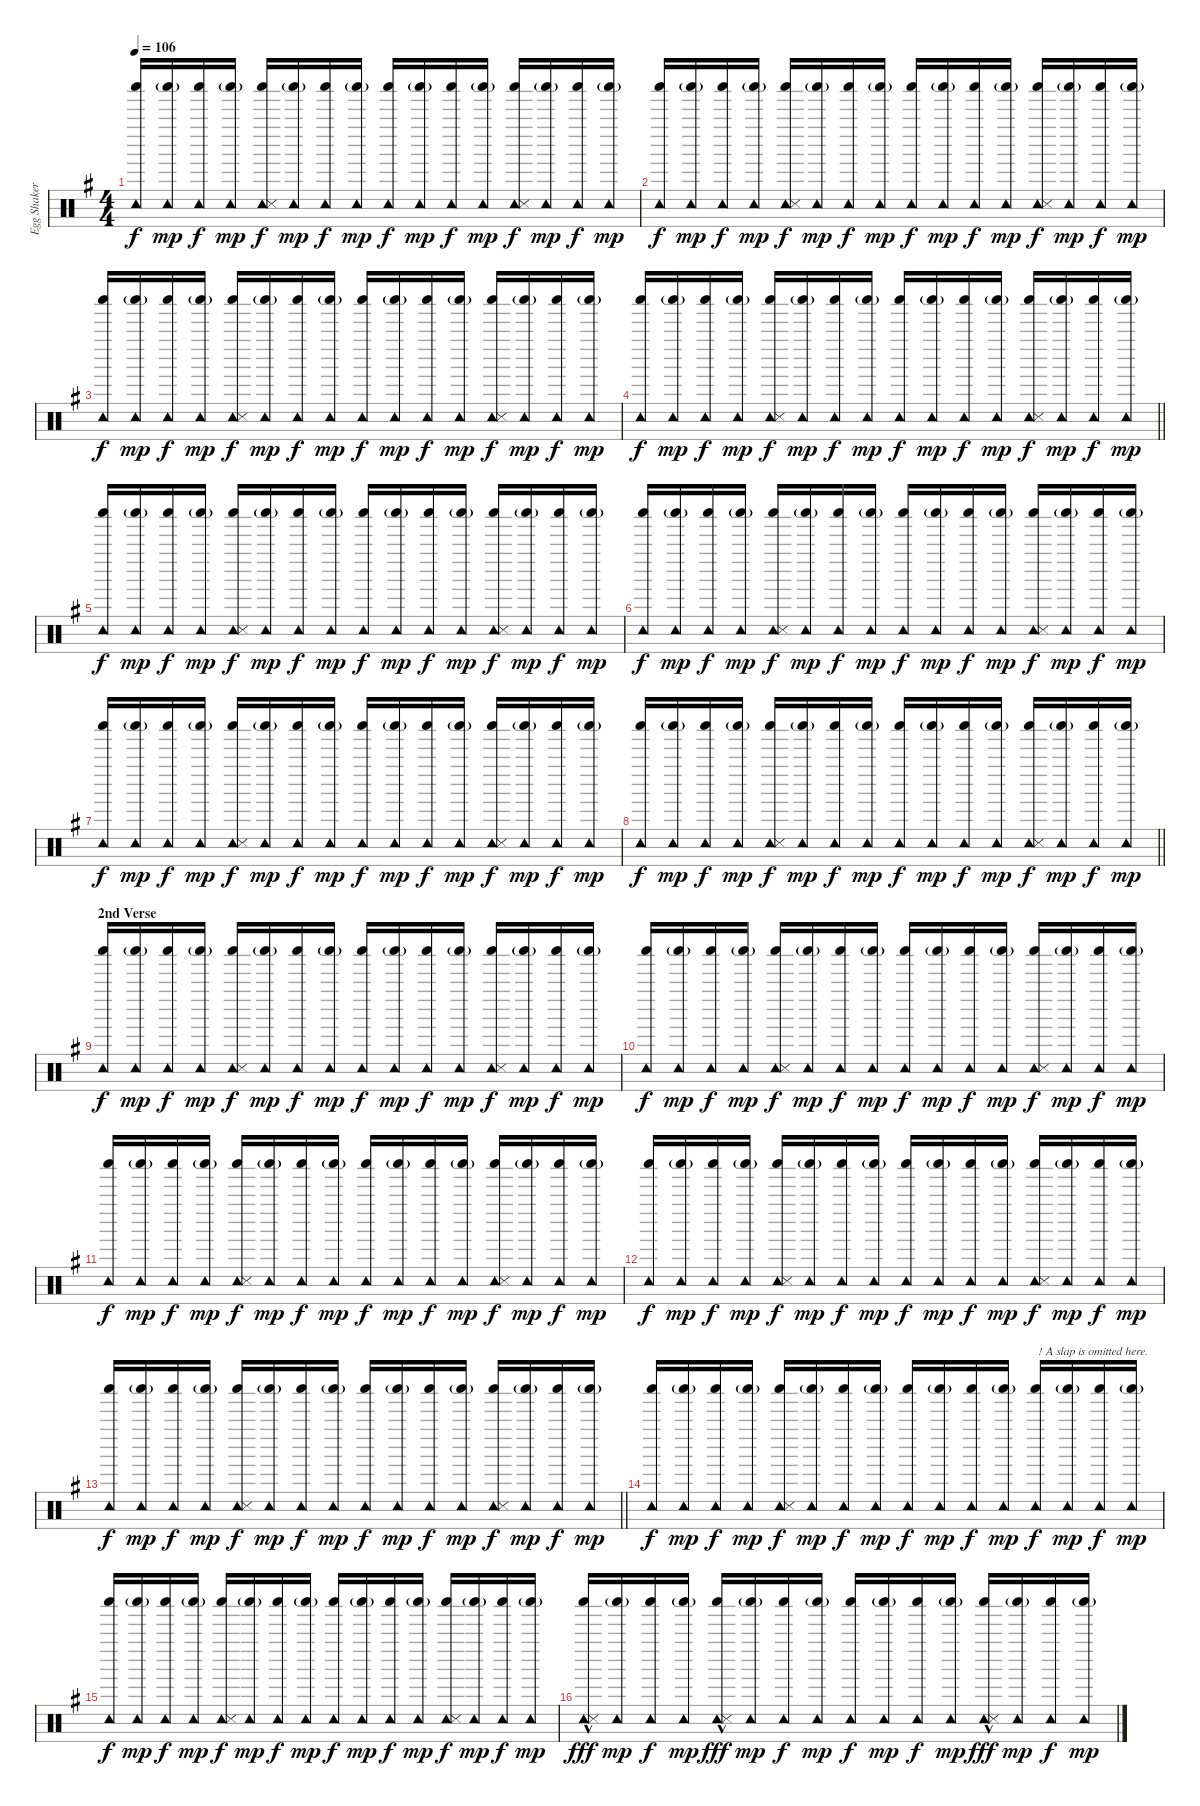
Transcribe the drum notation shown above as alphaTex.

\track ("Egg Shaker and Tambourine" "Egg Shaker") {instrument percussion}
\staff {score}
\articulation defaults
\ts (4 4)
\tempo 106
\clef neutral
\ks eminor
("Tambourine (hit)" "Shaker (hit)").16{dy f beam Up} ("Tambourine (hit)" "Shaker (hit)"{g}).16{dy mp beam Up} ("Tambourine (hit)" "Shaker (hit)").16{dy f beam Up} ("Tambourine (hit)" "Shaker (hit)"{g}).16{dy mp beam Up} ("Tambourine (hit)" "Shaker (hit)" "Snare (side stick) 3").16{dy f beam Up} ("Tambourine (hit)" "Shaker (hit)"{g}).16{dy mp beam Up} ("Tambourine (hit)" "Shaker (hit)").16{dy f beam Up} ("Tambourine (hit)" "Shaker (hit)"{g}).16{dy mp beam Up} ("Tambourine (hit)" "Shaker (hit)").16{dy f beam Up} ("Tambourine (hit)" "Shaker (hit)"{g}).16{dy mp beam Up} ("Tambourine (hit)" "Shaker (hit)").16{dy f beam Up} ("Tambourine (hit)" "Shaker (hit)"{g}).16{dy mp beam Up} ("Tambourine (hit)" "Shaker (hit)" "Snare (side stick) 3").16{dy f beam Up} ("Tambourine (hit)" "Shaker (hit)"{g}).16{dy mp beam Up} ("Tambourine (hit)" "Shaker (hit)").16{dy f beam Up} ("Tambourine (hit)" "Shaker (hit)"{g}).16{dy mp beam Up} |
("Tambourine (hit)" "Shaker (hit)").16{dy f beam Up} ("Tambourine (hit)" "Shaker (hit)"{g}).16{dy mp beam Up} ("Tambourine (hit)" "Shaker (hit)").16{dy f beam Up} ("Tambourine (hit)" "Shaker (hit)"{g}).16{dy mp beam Up} ("Tambourine (hit)" "Shaker (hit)" "Snare (side stick) 3").16{dy f beam Up} ("Tambourine (hit)" "Shaker (hit)"{g}).16{dy mp beam Up} ("Tambourine (hit)" "Shaker (hit)").16{dy f beam Up} ("Tambourine (hit)" "Shaker (hit)"{g}).16{dy mp beam Up} ("Tambourine (hit)" "Shaker (hit)").16{dy f beam Up} ("Tambourine (hit)" "Shaker (hit)"{g}).16{dy mp beam Up} ("Tambourine (hit)" "Shaker (hit)").16{dy f beam Up} ("Tambourine (hit)" "Shaker (hit)"{g}).16{dy mp beam Up} ("Tambourine (hit)" "Shaker (hit)" "Snare (side stick) 3").16{dy f beam Up} ("Tambourine (hit)" "Shaker (hit)"{g}).16{dy mp beam Up} ("Tambourine (hit)" "Shaker (hit)").16{dy f beam Up} ("Tambourine (hit)" "Shaker (hit)"{g}).16{dy mp beam Up} |
("Tambourine (hit)" "Shaker (hit)").16{dy f beam Up} ("Tambourine (hit)" "Shaker (hit)"{g}).16{dy mp beam Up} ("Tambourine (hit)" "Shaker (hit)").16{dy f beam Up} ("Tambourine (hit)" "Shaker (hit)"{g}).16{dy mp beam Up} ("Tambourine (hit)" "Shaker (hit)" "Snare (side stick) 3").16{dy f beam Up} ("Tambourine (hit)" "Shaker (hit)"{g}).16{dy mp beam Up} ("Tambourine (hit)" "Shaker (hit)").16{dy f beam Up} ("Tambourine (hit)" "Shaker (hit)"{g}).16{dy mp beam Up} ("Tambourine (hit)" "Shaker (hit)").16{dy f beam Up} ("Tambourine (hit)" "Shaker (hit)"{g}).16{dy mp beam Up} ("Tambourine (hit)" "Shaker (hit)").16{dy f beam Up} ("Tambourine (hit)" "Shaker (hit)"{g}).16{dy mp beam Up} ("Tambourine (hit)" "Shaker (hit)" "Snare (side stick) 3").16{dy f beam Up} ("Tambourine (hit)" "Shaker (hit)"{g}).16{dy mp beam Up} ("Tambourine (hit)" "Shaker (hit)").16{dy f beam Up} ("Tambourine (hit)" "Shaker (hit)"{g}).16{dy mp beam Up} |
\barLineRight lightlight
("Tambourine (hit)" "Shaker (hit)").16{dy f beam Up} ("Tambourine (hit)" "Shaker (hit)"{g}).16{dy mp beam Up} ("Tambourine (hit)" "Shaker (hit)").16{dy f beam Up} ("Tambourine (hit)" "Shaker (hit)"{g}).16{dy mp beam Up} ("Tambourine (hit)" "Shaker (hit)" "Snare (side stick) 3").16{dy f beam Up} ("Tambourine (hit)" "Shaker (hit)"{g}).16{dy mp beam Up} ("Tambourine (hit)" "Shaker (hit)").16{dy f beam Up} ("Tambourine (hit)" "Shaker (hit)"{g}).16{dy mp beam Up} ("Tambourine (hit)" "Shaker (hit)").16{dy f beam Up} ("Tambourine (hit)" "Shaker (hit)"{g}).16{dy mp beam Up} ("Tambourine (hit)" "Shaker (hit)").16{dy f beam Up} ("Tambourine (hit)" "Shaker (hit)"{g}).16{dy mp beam Up} ("Tambourine (hit)" "Shaker (hit)" "Snare (side stick) 3").16{dy f beam Up} ("Tambourine (hit)" "Shaker (hit)"{g}).16{dy mp beam Up} ("Tambourine (hit)" "Shaker (hit)").16{dy f beam Up} ("Tambourine (hit)" "Shaker (hit)"{g}).16{dy mp beam Up} |
("Tambourine (hit)" "Shaker (hit)").16{dy f beam Up} ("Tambourine (hit)" "Shaker (hit)"{g}).16{dy mp beam Up} ("Tambourine (hit)" "Shaker (hit)").16{dy f beam Up} ("Tambourine (hit)" "Shaker (hit)"{g}).16{dy mp beam Up} ("Tambourine (hit)" "Shaker (hit)" "Snare (side stick) 3").16{dy f beam Up} ("Tambourine (hit)" "Shaker (hit)"{g}).16{dy mp beam Up} ("Tambourine (hit)" "Shaker (hit)").16{dy f beam Up} ("Tambourine (hit)" "Shaker (hit)"{g}).16{dy mp beam Up} ("Tambourine (hit)" "Shaker (hit)").16{dy f beam Up} ("Tambourine (hit)" "Shaker (hit)"{g}).16{dy mp beam Up} ("Tambourine (hit)" "Shaker (hit)").16{dy f beam Up} ("Tambourine (hit)" "Shaker (hit)"{g}).16{dy mp beam Up} ("Tambourine (hit)" "Shaker (hit)" "Snare (side stick) 3").16{dy f beam Up} ("Tambourine (hit)" "Shaker (hit)"{g}).16{dy mp beam Up} ("Tambourine (hit)" "Shaker (hit)").16{dy f beam Up} ("Tambourine (hit)" "Shaker (hit)"{g}).16{dy mp beam Up} |
("Tambourine (hit)" "Shaker (hit)").16{dy f beam Up} ("Tambourine (hit)" "Shaker (hit)"{g}).16{dy mp beam Up} ("Tambourine (hit)" "Shaker (hit)").16{dy f beam Up} ("Tambourine (hit)" "Shaker (hit)"{g}).16{dy mp beam Up} ("Tambourine (hit)" "Shaker (hit)" "Snare (side stick) 3").16{dy f beam Up} ("Tambourine (hit)" "Shaker (hit)"{g}).16{dy mp beam Up} ("Tambourine (hit)" "Shaker (hit)").16{dy f beam Up} ("Tambourine (hit)" "Shaker (hit)"{g}).16{dy mp beam Up} ("Tambourine (hit)" "Shaker (hit)").16{dy f beam Up} ("Tambourine (hit)" "Shaker (hit)"{g}).16{dy mp beam Up} ("Tambourine (hit)" "Shaker (hit)").16{dy f beam Up} ("Tambourine (hit)" "Shaker (hit)"{g}).16{dy mp beam Up} ("Tambourine (hit)" "Shaker (hit)" "Snare (side stick) 3").16{dy f beam Up} ("Tambourine (hit)" "Shaker (hit)"{g}).16{dy mp beam Up} ("Tambourine (hit)" "Shaker (hit)").16{dy f beam Up} ("Tambourine (hit)" "Shaker (hit)"{g}).16{dy mp beam Up} |
("Tambourine (hit)" "Shaker (hit)").16{dy f beam Up} ("Tambourine (hit)" "Shaker (hit)"{g}).16{dy mp beam Up} ("Tambourine (hit)" "Shaker (hit)").16{dy f beam Up} ("Tambourine (hit)" "Shaker (hit)"{g}).16{dy mp beam Up} ("Tambourine (hit)" "Shaker (hit)" "Snare (side stick) 3").16{dy f beam Up} ("Tambourine (hit)" "Shaker (hit)"{g}).16{dy mp beam Up} ("Tambourine (hit)" "Shaker (hit)").16{dy f beam Up} ("Tambourine (hit)" "Shaker (hit)"{g}).16{dy mp beam Up} ("Tambourine (hit)" "Shaker (hit)").16{dy f beam Up} ("Tambourine (hit)" "Shaker (hit)"{g}).16{dy mp beam Up} ("Tambourine (hit)" "Shaker (hit)").16{dy f beam Up} ("Tambourine (hit)" "Shaker (hit)"{g}).16{dy mp beam Up} ("Tambourine (hit)" "Shaker (hit)" "Snare (side stick) 3").16{dy f beam Up} ("Tambourine (hit)" "Shaker (hit)"{g}).16{dy mp beam Up} ("Tambourine (hit)" "Shaker (hit)").16{dy f beam Up} ("Tambourine (hit)" "Shaker (hit)"{g}).16{dy mp beam Up} |
\barLineRight lightlight
("Tambourine (hit)" "Shaker (hit)").16{dy f beam Up} ("Tambourine (hit)" "Shaker (hit)"{g}).16{dy mp beam Up} ("Tambourine (hit)" "Shaker (hit)").16{dy f beam Up} ("Tambourine (hit)" "Shaker (hit)"{g}).16{dy mp beam Up} ("Tambourine (hit)" "Shaker (hit)" "Snare (side stick) 3").16{dy f beam Up} ("Tambourine (hit)" "Shaker (hit)"{g}).16{dy mp beam Up} ("Tambourine (hit)" "Shaker (hit)").16{dy f beam Up} ("Tambourine (hit)" "Shaker (hit)"{g}).16{dy mp beam Up} ("Tambourine (hit)" "Shaker (hit)").16{dy f beam Up} ("Tambourine (hit)" "Shaker (hit)"{g}).16{dy mp beam Up} ("Tambourine (hit)" "Shaker (hit)").16{dy f beam Up} ("Tambourine (hit)" "Shaker (hit)"{g}).16{dy mp beam Up} ("Tambourine (hit)" "Shaker (hit)" "Snare (side stick) 3").16{dy f beam Up} ("Tambourine (hit)" "Shaker (hit)"{g}).16{dy mp beam Up} ("Tambourine (hit)" "Shaker (hit)").16{dy f beam Up} ("Tambourine (hit)" "Shaker (hit)"{g}).16{dy mp beam Up} |
\section ("" "2nd Verse")
("Tambourine (hit)" "Shaker (hit)").16{dy f beam Up} ("Tambourine (hit)" "Shaker (hit)"{g}).16{dy mp beam Up} ("Tambourine (hit)" "Shaker (hit)").16{dy f beam Up} ("Tambourine (hit)" "Shaker (hit)"{g}).16{dy mp beam Up} ("Tambourine (hit)" "Shaker (hit)" "Snare (side stick) 3").16{dy f beam Up} ("Tambourine (hit)" "Shaker (hit)"{g}).16{dy mp beam Up} ("Tambourine (hit)" "Shaker (hit)").16{dy f beam Up} ("Tambourine (hit)" "Shaker (hit)"{g}).16{dy mp beam Up} ("Tambourine (hit)" "Shaker (hit)").16{dy f beam Up} ("Tambourine (hit)" "Shaker (hit)"{g}).16{dy mp beam Up} ("Tambourine (hit)" "Shaker (hit)").16{dy f beam Up} ("Tambourine (hit)" "Shaker (hit)"{g}).16{dy mp beam Up} ("Tambourine (hit)" "Shaker (hit)" "Snare (side stick) 3").16{dy f beam Up} ("Tambourine (hit)" "Shaker (hit)"{g}).16{dy mp beam Up} ("Tambourine (hit)" "Shaker (hit)").16{dy f beam Up} ("Tambourine (hit)" "Shaker (hit)"{g}).16{dy mp beam Up} |
("Tambourine (hit)" "Shaker (hit)").16{dy f beam Up} ("Tambourine (hit)" "Shaker (hit)"{g}).16{dy mp beam Up} ("Tambourine (hit)" "Shaker (hit)").16{dy f beam Up} ("Tambourine (hit)" "Shaker (hit)"{g}).16{dy mp beam Up} ("Tambourine (hit)" "Shaker (hit)" "Snare (side stick) 3").16{dy f beam Up} ("Tambourine (hit)" "Shaker (hit)"{g}).16{dy mp beam Up} ("Tambourine (hit)" "Shaker (hit)").16{dy f beam Up} ("Tambourine (hit)" "Shaker (hit)"{g}).16{dy mp beam Up} ("Tambourine (hit)" "Shaker (hit)").16{dy f beam Up} ("Tambourine (hit)" "Shaker (hit)"{g}).16{dy mp beam Up} ("Tambourine (hit)" "Shaker (hit)").16{dy f beam Up} ("Tambourine (hit)" "Shaker (hit)"{g}).16{dy mp beam Up} ("Tambourine (hit)" "Shaker (hit)" "Snare (side stick) 3").16{dy f beam Up} ("Tambourine (hit)" "Shaker (hit)"{g}).16{dy mp beam Up} ("Tambourine (hit)" "Shaker (hit)").16{dy f beam Up} ("Tambourine (hit)" "Shaker (hit)"{g}).16{dy mp beam Up} |
("Tambourine (hit)" "Shaker (hit)").16{dy f beam Up} ("Tambourine (hit)" "Shaker (hit)"{g}).16{dy mp beam Up} ("Tambourine (hit)" "Shaker (hit)").16{dy f beam Up} ("Tambourine (hit)" "Shaker (hit)"{g}).16{dy mp beam Up} ("Tambourine (hit)" "Shaker (hit)" "Snare (side stick) 3").16{dy f beam Up} ("Tambourine (hit)" "Shaker (hit)"{g}).16{dy mp beam Up} ("Tambourine (hit)" "Shaker (hit)").16{dy f beam Up} ("Tambourine (hit)" "Shaker (hit)"{g}).16{dy mp beam Up} ("Tambourine (hit)" "Shaker (hit)").16{dy f beam Up} ("Tambourine (hit)" "Shaker (hit)"{g}).16{dy mp beam Up} ("Tambourine (hit)" "Shaker (hit)").16{dy f beam Up} ("Tambourine (hit)" "Shaker (hit)"{g}).16{dy mp beam Up} ("Tambourine (hit)" "Shaker (hit)" "Snare (side stick) 3").16{dy f beam Up} ("Tambourine (hit)" "Shaker (hit)"{g}).16{dy mp beam Up} ("Tambourine (hit)" "Shaker (hit)").16{dy f beam Up} ("Tambourine (hit)" "Shaker (hit)"{g}).16{dy mp beam Up} |
("Tambourine (hit)" "Shaker (hit)").16{dy f beam Up} ("Tambourine (hit)" "Shaker (hit)"{g}).16{dy mp beam Up} ("Tambourine (hit)" "Shaker (hit)").16{dy f beam Up} ("Tambourine (hit)" "Shaker (hit)"{g}).16{dy mp beam Up} ("Tambourine (hit)" "Shaker (hit)" "Snare (side stick) 3").16{dy f beam Up} ("Tambourine (hit)" "Shaker (hit)"{g}).16{dy mp beam Up} ("Tambourine (hit)" "Shaker (hit)").16{dy f beam Up} ("Tambourine (hit)" "Shaker (hit)"{g}).16{dy mp beam Up} ("Tambourine (hit)" "Shaker (hit)").16{dy f beam Up} ("Tambourine (hit)" "Shaker (hit)"{g}).16{dy mp beam Up} ("Tambourine (hit)" "Shaker (hit)").16{dy f beam Up} ("Tambourine (hit)" "Shaker (hit)"{g}).16{dy mp beam Up} ("Tambourine (hit)" "Shaker (hit)" "Snare (side stick) 3").16{dy f beam Up} ("Tambourine (hit)" "Shaker (hit)"{g}).16{dy mp beam Up} ("Tambourine (hit)" "Shaker (hit)").16{dy f beam Up} ("Tambourine (hit)" "Shaker (hit)"{g}).16{dy mp beam Up} |
\barLineRight lightlight
("Tambourine (hit)" "Shaker (hit)").16{dy f beam Up} ("Tambourine (hit)" "Shaker (hit)"{g}).16{dy mp beam Up} ("Tambourine (hit)" "Shaker (hit)").16{dy f beam Up} ("Tambourine (hit)" "Shaker (hit)"{g}).16{dy mp beam Up} ("Tambourine (hit)" "Shaker (hit)" "Snare (side stick) 3").16{dy f beam Up} ("Tambourine (hit)" "Shaker (hit)"{g}).16{dy mp beam Up} ("Tambourine (hit)" "Shaker (hit)").16{dy f beam Up} ("Tambourine (hit)" "Shaker (hit)"{g}).16{dy mp beam Up} ("Tambourine (hit)" "Shaker (hit)").16{dy f beam Up} ("Tambourine (hit)" "Shaker (hit)"{g}).16{dy mp beam Up} ("Tambourine (hit)" "Shaker (hit)").16{dy f beam Up} ("Tambourine (hit)" "Shaker (hit)"{g}).16{dy mp beam Up} ("Tambourine (hit)" "Shaker (hit)" "Snare (side stick) 3").16{dy f beam Up} ("Tambourine (hit)" "Shaker (hit)"{g}).16{dy mp beam Up} ("Tambourine (hit)" "Shaker (hit)").16{dy f beam Up} ("Tambourine (hit)" "Shaker (hit)"{g}).16{dy mp beam Up} |
("Tambourine (hit)" "Shaker (hit)").16{dy f beam Up} ("Tambourine (hit)" "Shaker (hit)"{g}).16{dy mp beam Up} ("Tambourine (hit)" "Shaker (hit)").16{dy f beam Up} ("Tambourine (hit)" "Shaker (hit)"{g}).16{dy mp beam Up} ("Tambourine (hit)" "Shaker (hit)" "Snare (side stick) 3").16{dy f beam Up} ("Tambourine (hit)" "Shaker (hit)"{g}).16{dy mp beam Up} ("Tambourine (hit)" "Shaker (hit)").16{dy f beam Up} ("Tambourine (hit)" "Shaker (hit)"{g}).16{dy mp beam Up} ("Tambourine (hit)" "Shaker (hit)").16{dy f beam Up} ("Tambourine (hit)" "Shaker (hit)"{g}).16{dy mp beam Up} ("Tambourine (hit)" "Shaker (hit)").16{dy f beam Up} ("Tambourine (hit)" "Shaker (hit)"{g}).16{dy mp beam Up} ("Tambourine (hit)" "Shaker (hit)").16{txt " ! A slap is omitted here." dy f beam Up} ("Tambourine (hit)" "Shaker (hit)"{g}).16{dy mp beam Up} ("Tambourine (hit)" "Shaker (hit)").16{dy f beam Up} ("Tambourine (hit)" "Shaker (hit)"{g}).16{dy mp beam Up} |
("Tambourine (hit)" "Shaker (hit)").16{dy f beam Up} ("Tambourine (hit)" "Shaker (hit)"{g}).16{dy mp beam Up} ("Tambourine (hit)" "Shaker (hit)").16{dy f beam Up} ("Tambourine (hit)" "Shaker (hit)"{g}).16{dy mp beam Up} ("Tambourine (hit)" "Shaker (hit)" "Snare (side stick) 3").16{dy f beam Up} ("Tambourine (hit)" "Shaker (hit)"{g}).16{dy mp beam Up} ("Tambourine (hit)" "Shaker (hit)").16{dy f beam Up} ("Tambourine (hit)" "Shaker (hit)"{g}).16{dy mp beam Up} ("Tambourine (hit)" "Shaker (hit)").16{dy f beam Up} ("Tambourine (hit)" "Shaker (hit)"{g}).16{dy mp beam Up} ("Tambourine (hit)" "Shaker (hit)").16{dy f beam Up} ("Tambourine (hit)" "Shaker (hit)"{g}).16{dy mp beam Up} ("Tambourine (hit)" "Shaker (hit)" "Snare (side stick) 3").16{dy f beam Up} ("Tambourine (hit)" "Shaker (hit)"{g}).16{dy mp beam Up} ("Tambourine (hit)" "Shaker (hit)").16{dy f beam Up} ("Tambourine (hit)" "Shaker (hit)"{g}).16{dy mp beam Up} |
("Tambourine (hit)" "Shaker (hit)" "Snare (side stick) 3"{hac}).16{dy fff beam Up} ("Tambourine (hit)" "Shaker (hit)"{g}).16{dy mp beam Up} ("Tambourine (hit)" "Shaker (hit)").16{dy f beam Up} ("Tambourine (hit)" "Shaker (hit)"{g}).16{dy mp beam Up} ("Tambourine (hit)" "Shaker (hit)" "Snare (side stick) 3"{hac}).16{dy fff beam Up} ("Tambourine (hit)" "Shaker (hit)"{g}).16{dy mp beam Up} ("Tambourine (hit)" "Shaker (hit)").16{dy f beam Up} ("Tambourine (hit)" "Shaker (hit)"{g}).16{dy mp beam Up} ("Tambourine (hit)" "Shaker (hit)").16{dy f beam Up} ("Tambourine (hit)" "Shaker (hit)"{g}).16{dy mp beam Up} ("Tambourine (hit)" "Shaker (hit)").16{dy f beam Up} ("Tambourine (hit)" "Shaker (hit)"{g}).16{dy mp beam Up} ("Tambourine (hit)" "Shaker (hit)" "Snare (side stick) 3"{hac}).16{dy fff beam Up} ("Tambourine (hit)" "Shaker (hit)"{g}).16{dy mp beam Up} ("Tambourine (hit)" "Shaker (hit)").16{dy f beam Up} ("Tambourine (hit)" "Shaker (hit)"{g}).16{dy mp beam Up}
